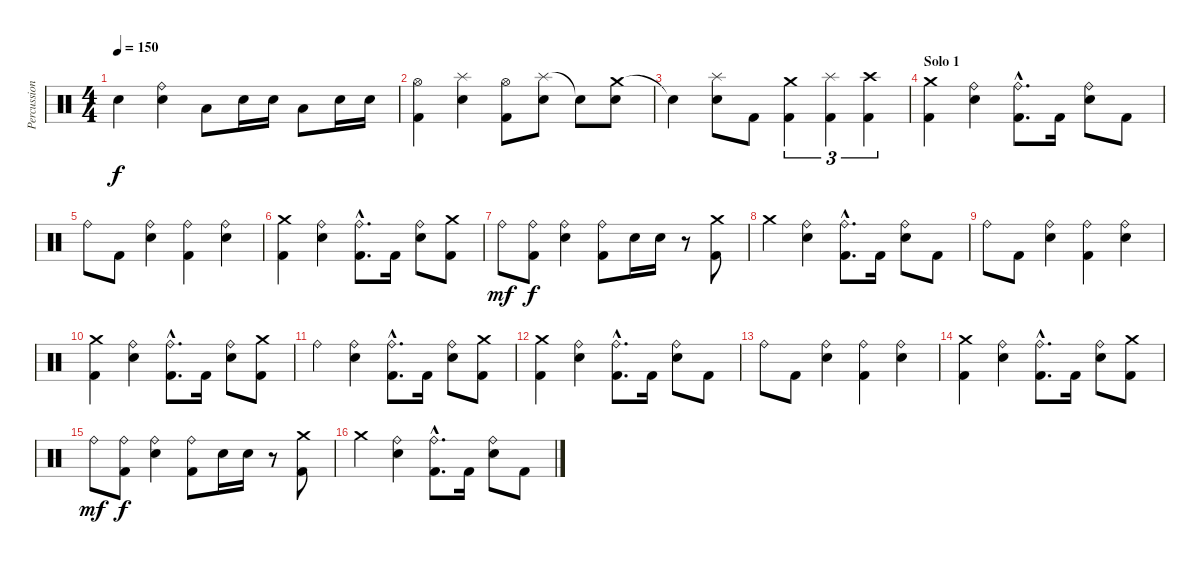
\track ("Percussions" "Percussion") {instrument percussion}
\staff {score}
\articulation defaults
\ts (4 4)
\tempo 150
\clef neutral
\ks c "Snare (hit)"{t}.4{dy f}
("Ride (bell)" "Electric Snare (hit)").4 "Low Tom (hit)".8 "Electric Snare (hit)".16 "Electric Snare (hit)".16 "Low Tom (hit)".8 "Electric Snare (hit)".16 "Electric Snare (hit)".16 |
("Hi-Hat (open)" "Kick (hit) 2").4 ("Splash (hit)" "Electric Snare (hit)").4 ("Hi-Hat (open)" "Kick (hit) 2").8 ("Splash (hit)" "Electric Snare (hit)").8 "Snare (hit)"{t}.8 ("Crash medium (hit)" "Electric Snare (hit)").8 |
"Snare (hit)"{t}.4 ("Splash (hit)" "Electric Snare (hit)").8 "Kick (hit) 2".8 ("Crash medium (hit)" "Kick (hit) 2").4{tu (3 2)} ("Splash (hit)" "Kick (hit) 2").4{tu (3 2)} ("Crash high (hit)" "Kick (hit) 2").4{tu (3 2)} |
\section ("" "Solo 1")
("Crash medium (hit)" "Kick (hit) 2").4 ("Ride (bell)" "Electric Snare (hit)").4 ("Ride (bell)"{hac} "Kick (hit) 2"{hac}).8{d} "Kick (hit) 2".16 ("Ride (bell)" "Electric Snare (hit)").8 "Kick (hit) 2".8 |
"Ride (bell)".8 "Kick (hit) 2".8 ("Ride (bell)" "Electric Snare (hit)").4 ("Ride (bell)" "Kick (hit) 2").4 ("Ride (bell)" "Electric Snare (hit)").4 |
("Crash medium (hit)" "Kick (hit) 2").4 ("Ride (bell)" "Electric Snare (hit)").4 ("Ride (bell)"{hac} "Kick (hit) 2"{hac}).8{d} "Kick (hit) 2".16 ("Ride (bell)" "Electric Snare (hit)").8 ("Crash medium (hit)" "Kick (hit) 2").8 |
"Ride (bell)".8{dy mf} ("Ride (bell)" "Kick (hit) 2").8{dy f} ("Ride (bell)" "Electric Snare (hit)").4 ("Ride (bell)" "Kick (hit) 2").8 "Electric Snare (hit)".16 "Electric Snare (hit)".16 r.8 ("Crash medium (hit)" "Kick (hit) 2").8 |
"Crash medium (hit)".4 ("Ride (bell)" "Electric Snare (hit)").4 ("Ride (bell)"{hac} "Kick (hit) 2"{hac}).8{d} "Kick (hit) 2".16 ("Ride (bell)" "Electric Snare (hit)").8 "Kick (hit) 2".8 |
"Ride (bell)".8 "Kick (hit) 2".8 ("Ride (bell)" "Electric Snare (hit)").4 ("Ride (bell)" "Kick (hit) 2").4 ("Ride (bell)" "Electric Snare (hit)").4 |
("Crash medium (hit)" "Kick (hit) 2").4 ("Ride (bell)" "Electric Snare (hit)").4 ("Ride (bell)"{hac} "Kick (hit) 2"{hac}).8{d} "Kick (hit) 2".16 ("Ride (bell)" "Electric Snare (hit)").8 ("Crash medium (hit)" "Kick (hit) 2").8 |
"Ride (bell)".4 ("Ride (bell)" "Electric Snare (hit)").4 ("Ride (bell)"{hac} "Kick (hit) 2"{hac}).8{d} "Kick (hit) 2".16 ("Ride (bell)" "Electric Snare (hit)").8 ("Crash medium (hit)" "Kick (hit) 2").8 |
("Crash medium (hit)" "Kick (hit) 2").4 ("Ride (bell)" "Electric Snare (hit)").4 ("Ride (bell)"{hac} "Kick (hit) 2"{hac}).8{d} "Kick (hit) 2".16 ("Ride (bell)" "Electric Snare (hit)").8 "Kick (hit) 2".8 |
"Ride (bell)".8 "Kick (hit) 2".8 ("Ride (bell)" "Electric Snare (hit)").4 ("Ride (bell)" "Kick (hit) 2").4 ("Ride (bell)" "Electric Snare (hit)").4 |
("Crash medium (hit)" "Kick (hit) 2").4 ("Ride (bell)" "Electric Snare (hit)").4 ("Ride (bell)"{hac} "Kick (hit) 2"{hac}).8{d} "Kick (hit) 2".16 ("Ride (bell)" "Electric Snare (hit)").8 ("Crash medium (hit)" "Kick (hit) 2").8 |
"Ride (bell)".8{dy mf} ("Ride (bell)" "Kick (hit) 2").8{dy f} ("Ride (bell)" "Electric Snare (hit)").4 ("Ride (bell)" "Kick (hit) 2").8 "Electric Snare (hit)".16 "Electric Snare (hit)".16 r.8 ("Crash medium (hit)" "Kick (hit) 2").8 |
"Crash medium (hit)".4 ("Ride (bell)" "Electric Snare (hit)").4 ("Ride (bell)"{hac} "Kick (hit) 2"{hac}).8{d} "Kick (hit) 2".16 ("Ride (bell)" "Electric Snare (hit)").8 "Kick (hit) 2".8
